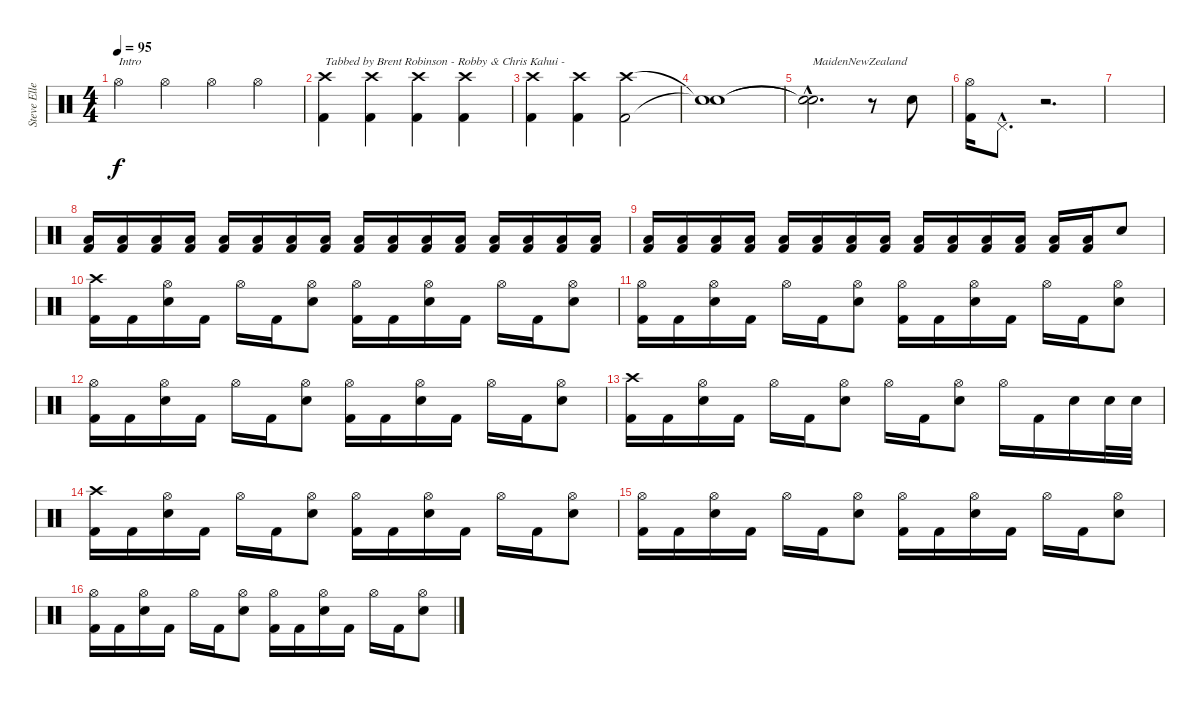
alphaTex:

\track ("Steve Ellett" "Steve Elle") {instrument percussion}
\staff {score}
\articulation defaults
\ts (4 4)
\tempo 95
\clef neutral
\ks c "Hi-Hat (open)".4{txt "Intro" dy f} "Hi-Hat (open)".4 "Hi-Hat (open)".4 "Hi-Hat (open)".4
|
("Crash high (hit)" "Kick (hit) 2").4{txt "Tabbed by Brent Robinson - Robby & Chris Kahui - "} ("Crash high (hit)" "Kick (hit) 2").4 ("Crash high (hit)" "Kick (hit) 2").4 ("Crash high (hit)" "Kick (hit) 2").4 |
("Crash high (hit)" "Kick (hit) 2").4 ("Crash high (hit)" "Kick (hit) 2").4 ("Crash high (hit)" "Kick (hit) 2").2 |
("Snare (hit)"{t} "Snare (hit)"{t}).1 |
("Snare (hit)"{hac t} "Snare (hit)"{hac t}).2{d txt "MaidenNewZealand"} r.8 "Snare (hit) 2".8 |
("Hi-Hat (open)" "Kick (hit) 2").16 "Pedal Hi-Hat (hit)"{hac}.8{d} r.2{d volume 0} |
|
("Low Floor Tom (hit)" "Kick (hit) 2").16{volume 16} ("Low Floor Tom (hit)" "Kick (hit) 2").16 ("Low Floor Tom (hit)" "Kick (hit) 2").16 ("Low Floor Tom (hit)" "Kick (hit) 2").16 ("Low Floor Tom (hit)" "Kick (hit) 2").16 ("Low Floor Tom (hit)" "Kick (hit) 2").16 ("Low Floor Tom (hit)" "Kick (hit) 2").16 ("Low Floor Tom (hit)" "Kick (hit) 2").16 ("Low Floor Tom (hit)" "Kick (hit) 2").16 ("Low Floor Tom (hit)" "Kick (hit) 2").16 ("Low Floor Tom (hit)" "Kick (hit) 2").16 ("Low Floor Tom (hit)" "Kick (hit) 2").16 ("Low Floor Tom (hit)" "Kick (hit) 2").16 ("Low Floor Tom (hit)" "Kick (hit) 2").16 ("Low Floor Tom (hit)" "Kick (hit) 2").16 ("Low Floor Tom (hit)" "Kick (hit) 2").16 |
("Low Floor Tom (hit)" "Kick (hit) 2").16 ("Low Floor Tom (hit)" "Kick (hit) 2").16 ("Low Floor Tom (hit)" "Kick (hit) 2").16 ("Low Floor Tom (hit)" "Kick (hit) 2").16 ("Low Floor Tom (hit)" "Kick (hit) 2").16 ("Low Floor Tom (hit)" "Kick (hit) 2").16 ("Low Floor Tom (hit)" "Kick (hit) 2").16 ("Low Floor Tom (hit)" "Kick (hit) 2").16 ("Low Floor Tom (hit)" "Kick (hit) 2").16 ("Low Floor Tom (hit)" "Kick (hit) 2").16 ("Low Floor Tom (hit)" "Kick (hit) 2").16 ("Low Floor Tom (hit)" "Kick (hit) 2").16 ("Low Floor Tom (hit)" "Kick (hit) 2").16 ("Low Floor Tom (hit)" "Kick (hit) 2").16 "Snare (hit) 2".8 |
("Crash high (hit)" "Kick (hit) 2").16 "Kick (hit) 2".16 ("Hi-Hat (open)" "Snare (hit) 2").16 "Kick (hit) 2".16 "Hi-Hat (open)".16 "Kick (hit) 2".16 ("Hi-Hat (open)" "Snare (hit) 2").8 ("Hi-Hat (open)" "Kick (hit) 2").16 "Kick (hit) 2".16 ("Hi-Hat (open)" "Snare (hit) 2").16 "Kick (hit) 2".16 "Hi-Hat (open)".16 "Kick (hit) 2".16 ("Hi-Hat (open)" "Snare (hit) 2").8 |
("Hi-Hat (open)" "Kick (hit) 2").16 "Kick (hit) 2".16 ("Hi-Hat (open)" "Snare (hit) 2").16 "Kick (hit) 2".16 "Hi-Hat (open)".16 "Kick (hit) 2".16 ("Hi-Hat (open)" "Snare (hit) 2").8 ("Hi-Hat (open)" "Kick (hit) 2").16 "Kick (hit) 2".16 ("Hi-Hat (open)" "Snare (hit) 2").16 "Kick (hit) 2".16 "Hi-Hat (open)".16 "Kick (hit) 2".16 ("Hi-Hat (open)" "Snare (hit) 2").8 |
("Hi-Hat (open)" "Kick (hit) 2").16 "Kick (hit) 2".16 ("Hi-Hat (open)" "Snare (hit) 2").16 "Kick (hit) 2".16 "Hi-Hat (open)".16 "Kick (hit) 2".16 ("Hi-Hat (open)" "Snare (hit) 2").8 ("Hi-Hat (open)" "Kick (hit) 2").16 "Kick (hit) 2".16 ("Hi-Hat (open)" "Snare (hit) 2").16 "Kick (hit) 2".16 "Hi-Hat (open)".16 "Kick (hit) 2".16 ("Hi-Hat (open)" "Snare (hit) 2").8 |
("Crash high (hit)" "Kick (hit) 2").16 "Kick (hit) 2".16 ("Hi-Hat (open)" "Snare (hit) 2").16 "Kick (hit) 2".16 "Hi-Hat (open)".16 "Kick (hit) 2".16 ("Hi-Hat (open)" "Snare (hit) 2").8 "Hi-Hat (open)".16 "Kick (hit) 2".16 ("Hi-Hat (open)" "Snare (hit) 2").8 "Hi-Hat (open)".16 "Kick (hit) 2".16 "Snare (hit) 2".16 "Snare (hit) 2".32 "Snare (hit) 2".32 |
("Crash high (hit)" "Kick (hit) 2").16 "Kick (hit) 2".16 ("Hi-Hat (open)" "Snare (hit) 2").16 "Kick (hit) 2".16 "Hi-Hat (open)".16 "Kick (hit) 2".16 ("Hi-Hat (open)" "Snare (hit) 2").8 ("Hi-Hat (open)" "Kick (hit) 2").16 "Kick (hit) 2".16 ("Hi-Hat (open)" "Snare (hit) 2").16 "Kick (hit) 2".16 "Hi-Hat (open)".16 "Kick (hit) 2".16 ("Hi-Hat (open)" "Snare (hit) 2").8 |
("Hi-Hat (open)" "Kick (hit) 2").16 "Kick (hit) 2".16 ("Hi-Hat (open)" "Snare (hit) 2").16 "Kick (hit) 2".16 "Hi-Hat (open)".16 "Kick (hit) 2".16 ("Hi-Hat (open)" "Snare (hit) 2").8 ("Hi-Hat (open)" "Kick (hit) 2").16 "Kick (hit) 2".16 ("Hi-Hat (open)" "Snare (hit) 2").16 "Kick (hit) 2".16 "Hi-Hat (open)".16 "Kick (hit) 2".16 ("Hi-Hat (open)" "Snare (hit) 2").8 |
("Hi-Hat (open)" "Kick (hit) 2").16 "Kick (hit) 2".16 ("Hi-Hat (open)" "Snare (hit) 2").16 "Kick (hit) 2".16 "Hi-Hat (open)".16 "Kick (hit) 2".16 ("Hi-Hat (open)" "Snare (hit) 2").8 ("Hi-Hat (open)" "Kick (hit) 2").16 "Kick (hit) 2".16 ("Hi-Hat (open)" "Snare (hit) 2").16 "Kick (hit) 2".16 "Hi-Hat (open)".16 "Kick (hit) 2".16 ("Hi-Hat (open)" "Snare (hit) 2").8
